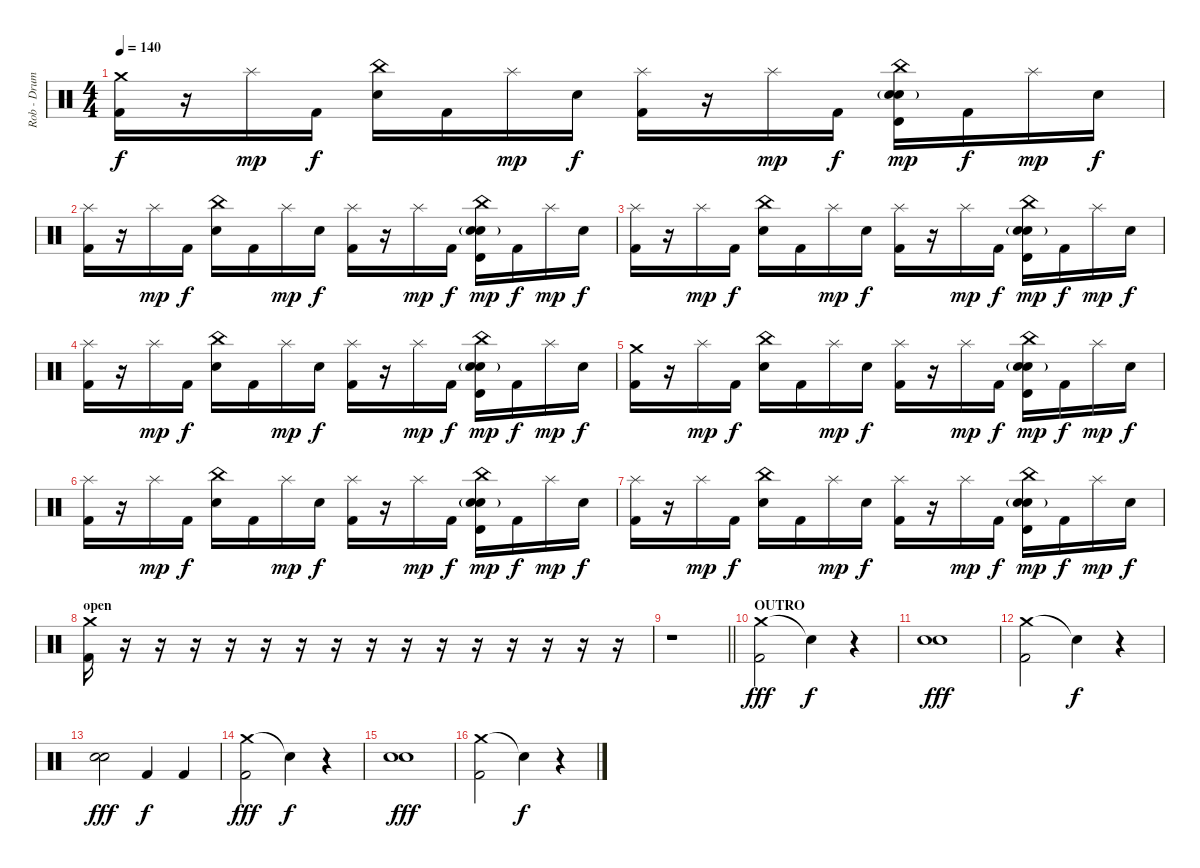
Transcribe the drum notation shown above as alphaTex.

\track ("Rob - Drums" "Rob - Drum") {instrument percussion}
\staff {score}
\articulation defaults
\ts (4 4)
\tempo 140
\clef neutral
\ks c
("Crash medium (hit)" "Kick (hit) 2").16{dy f} r.16 "Splash (hit)".16{dy mp} "Kick (hit) 2".16{dy f} ("China (hit)" "Electric Snare (hit)").16 "Kick (hit) 2".16 "Splash (hit)".16{dy mp} "Electric Snare (hit)".16{dy f} ("Splash (hit)" "Kick (hit) 2").16 r.16 "Splash (hit)".16{dy mp} "Kick (hit) 2".16{dy f} ("China (hit)" "Snare (hit) 2"{g} "Electric Snare (hit)"{g} "Timbale high (hit)").16{dy mp} "Kick (hit) 2".16{dy f} "Splash (hit)".16{dy mp} "Electric Snare (hit)".16{dy f} |
("Splash (hit)" "Kick (hit) 2").16 r.16 "Splash (hit)".16{dy mp} "Kick (hit) 2".16{dy f} ("China (hit)" "Electric Snare (hit)").16 "Kick (hit) 2".16 "Splash (hit)".16{dy mp} "Electric Snare (hit)".16{dy f} ("Splash (hit)" "Kick (hit) 2").16 r.16 "Splash (hit)".16{dy mp} "Kick (hit) 2".16{dy f} ("China (hit)" "Snare (hit) 2"{g} "Electric Snare (hit)"{g} "Timbale high (hit)").16{dy mp} "Kick (hit) 2".16{dy f} "Splash (hit)".16{dy mp} "Electric Snare (hit)".16{dy f} |
("Splash (hit)" "Kick (hit) 2").16 r.16 "Splash (hit)".16{dy mp} "Kick (hit) 2".16{dy f} ("China (hit)" "Electric Snare (hit)").16 "Kick (hit) 2".16 "Splash (hit)".16{dy mp} "Electric Snare (hit)".16{dy f} ("Splash (hit)" "Kick (hit) 2").16 r.16 "Splash (hit)".16{dy mp} "Kick (hit) 2".16{dy f} ("China (hit)" "Snare (hit) 2"{g} "Electric Snare (hit)"{g} "Timbale high (hit)").16{dy mp} "Kick (hit) 2".16{dy f} "Splash (hit)".16{dy mp} "Electric Snare (hit)".16{dy f} |
("Splash (hit)" "Kick (hit) 2").16 r.16 "Splash (hit)".16{dy mp} "Kick (hit) 2".16{dy f} ("China (hit)" "Electric Snare (hit)").16 "Kick (hit) 2".16 "Splash (hit)".16{dy mp} "Electric Snare (hit)".16{dy f} ("Splash (hit)" "Kick (hit) 2").16 r.16 "Splash (hit)".16{dy mp} "Kick (hit) 2".16{dy f} ("China (hit)" "Snare (hit) 2"{g} "Electric Snare (hit)"{g} "Timbale high (hit)").16{dy mp} "Kick (hit) 2".16{dy f} "Splash (hit)".16{dy mp} "Electric Snare (hit)".16{dy f} |
("Crash medium (hit)" "Kick (hit) 2").16 r.16 "Splash (hit)".16{dy mp} "Kick (hit) 2".16{dy f} ("China (hit)" "Electric Snare (hit)").16 "Kick (hit) 2".16 "Splash (hit)".16{dy mp} "Electric Snare (hit)".16{dy f} ("Splash (hit)" "Kick (hit) 2").16 r.16 "Splash (hit)".16{dy mp} "Kick (hit) 2".16{dy f} ("China (hit)" "Snare (hit) 2"{g} "Electric Snare (hit)"{g} "Timbale high (hit)").16{dy mp} "Kick (hit) 2".16{dy f} "Splash (hit)".16{dy mp} "Electric Snare (hit)".16{dy f} |
("Splash (hit)" "Kick (hit) 2").16 r.16 "Splash (hit)".16{dy mp} "Kick (hit) 2".16{dy f} ("China (hit)" "Electric Snare (hit)").16 "Kick (hit) 2".16 "Splash (hit)".16{dy mp} "Electric Snare (hit)".16{dy f} ("Splash (hit)" "Kick (hit) 2").16 r.16 "Splash (hit)".16{dy mp} "Kick (hit) 2".16{dy f} ("China (hit)" "Snare (hit) 2"{g} "Electric Snare (hit)"{g} "Timbale high (hit)").16{dy mp} "Kick (hit) 2".16{dy f} "Splash (hit)".16{dy mp} "Electric Snare (hit)".16{dy f} |
("Splash (hit)" "Kick (hit) 2").16 r.16 "Splash (hit)".16{dy mp} "Kick (hit) 2".16{dy f} ("China (hit)" "Electric Snare (hit)").16 "Kick (hit) 2".16 "Splash (hit)".16{dy mp} "Electric Snare (hit)".16{dy f} ("Splash (hit)" "Kick (hit) 2").16 r.16 "Splash (hit)".16{dy mp} "Kick (hit) 2".16{dy f} ("China (hit)" "Snare (hit) 2"{g} "Electric Snare (hit)"{g} "Timbale high (hit)").16{dy mp} "Kick (hit) 2".16{dy f} "Splash (hit)".16{dy mp} "Electric Snare (hit)".16{dy f} |
\section ("" "open")
("Crash medium (hit)" "Kick (hit) 2").16 r.16 r.16 r.16 r.16 r.16 r.16 r.16 r.16 r.16 r.16 r.16 r.16 r.16 r.16 r.16 |
\barLineRight lightlight
r.1 |
\section ("" "OUTRO")
("Crash medium (hit)" "Kick (hit) 2").2{dy fff} "Snare (hit)"{t}.4{dy f} r.4 |
("Electric Snare (hit)" "Electric Snare (hit)").1{dy fff} |
("Crash medium (hit)" "Kick (hit) 2").2 "Snare (hit)"{t}.4{dy f} r.4 |
("Electric Snare (hit)" "Electric Snare (hit)").2{dy fff} "Kick (hit) 2".4{dy f} "Kick (hit) 2".4 |
("Crash medium (hit)" "Kick (hit) 2").2{dy fff} "Snare (hit)"{t}.4{dy f} r.4 |
("Electric Snare (hit)" "Electric Snare (hit)").1{dy fff} |
("Crash medium (hit)" "Kick (hit) 2").2 "Snare (hit)"{t}.4{dy f} r.4
